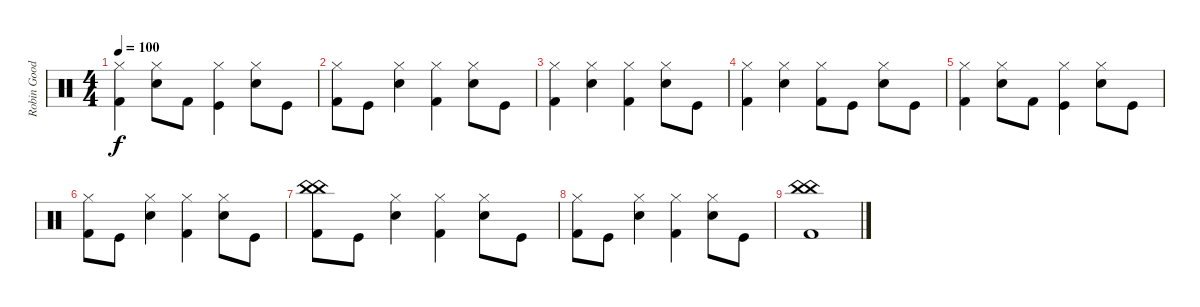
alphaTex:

\track ("Robin Goodridge - Drums " "Robin Good") {instrument percussion}
\staff {score}
\articulation defaults
\ts (4 4)
\tempo 100
\clef neutral
\ks c
("Hi-Hat (closed)" "Kick (hit) 2").4{dy f} ("Hi-Hat (closed)" "Snare (hit) 2").8 "Kick (hit) 2".8 ("Hi-Hat (closed)" "Kick (hit)").4 ("Hi-Hat (closed)" "Snare (hit) 2").8 "Kick (hit)".8 |
("Hi-Hat (closed)" "Kick (hit) 2").8{volume 16} "Kick (hit)".8 ("Hi-Hat (closed)" "Snare (hit) 2").4{volume 15} ("Hi-Hat (closed)" "Kick (hit) 2").4 ("Hi-Hat (closed)" "Snare (hit) 2").8 "Kick (hit)".8 |
("Hi-Hat (closed)" "Kick (hit) 2").4{volume 14} ("Hi-Hat (closed)" "Snare (hit) 2").4 ("Hi-Hat (closed)" "Kick (hit) 2").4{volume 13} ("Hi-Hat (closed)" "Snare (hit) 2").8 "Kick (hit)".8 |
("Hi-Hat (closed)" "Kick (hit) 2").4{volume 12} ("Hi-Hat (closed)" "Snare (hit) 2").4 ("Hi-Hat (closed)" "Kick (hit) 2").8 "Kick (hit)".8{volume 11} ("Hi-Hat (closed)" "Snare (hit) 2").8 "Kick (hit)".8 |
("Hi-Hat (closed)" "Kick (hit) 2").4{volume 10} ("Hi-Hat (closed)" "Snare (hit) 2").8 "Kick (hit) 2".8 ("Hi-Hat (closed)" "Kick (hit)").4{volume 9} ("Hi-Hat (closed)" "Snare (hit) 2").8 "Kick (hit)".8 |
("Hi-Hat (closed)" "Kick (hit) 2").8{volume 8} "Kick (hit)".8 ("Hi-Hat (closed)" "Snare (hit) 2").4{volume 6} ("Hi-Hat (closed)" "Kick (hit) 2").4{volume 4} ("Hi-Hat (closed)" "Snare (hit) 2").8 "Kick (hit)".8 |
("China (hit)" "China (hit)" "Kick (hit) 2").8{volume 3} "Kick (hit)".8 ("Hi-Hat (closed)" "Snare (hit) 2").4 ("Hi-Hat (closed)" "Kick (hit) 2").4 ("Hi-Hat (closed)" "Snare (hit) 2").8 "Kick (hit)".8 |
("Hi-Hat (closed)" "Kick (hit) 2").8{volume 2} "Kick (hit)".8 ("Hi-Hat (closed)" "Snare (hit) 2").4 ("Hi-Hat (closed)" "Kick (hit) 2").4 ("Hi-Hat (closed)" "Snare (hit) 2").8 "Kick (hit)".8 |
("China (hit)" "China (hit)" "Kick (hit) 2").1{volume 1}
